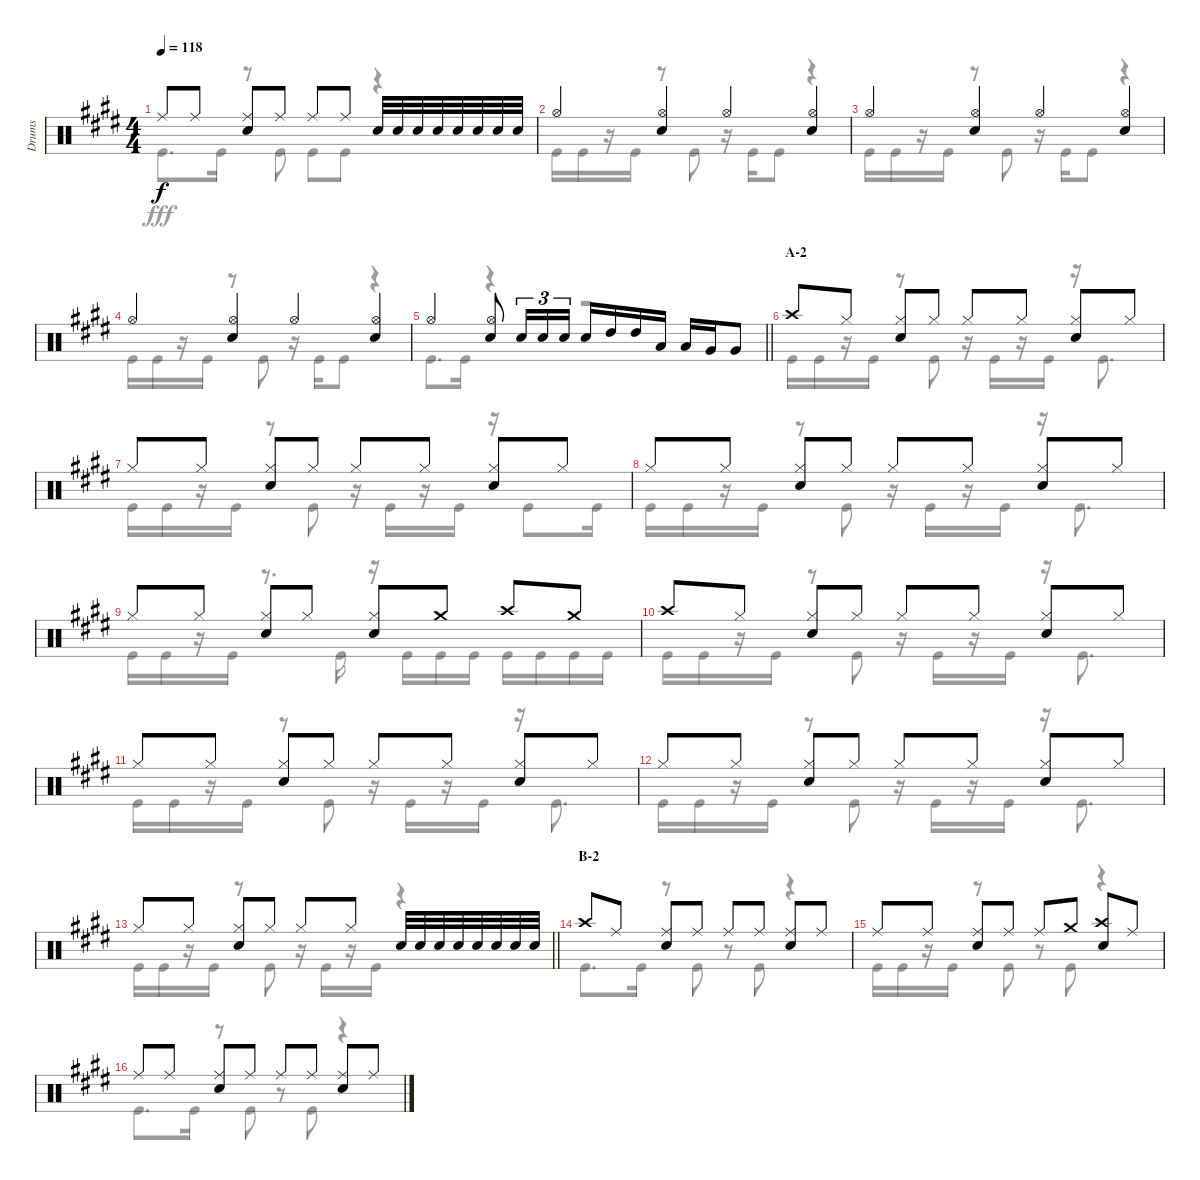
\track ("Drums" "Drums") {instrument percussion}
\staff {score}
\articulation defaults
\voice
\ts (4 4)
\tempo 118
\clef neutral
\ks e "Ride (middle)".8{dy f} "Ride (middle)".8
("Ride (middle)" "Snare (hit) 2").8 "Ride (middle)".8 "Ride (middle)".8 "Ride (middle)".8 "Snare (hit) 2".32 "Snare (hit) 2".32 "Snare (hit) 2".32 "Snare (hit) 2".32 "Snare (hit) 2".32 "Snare (hit) 2".32 "Snare (hit) 2".32 "Snare (hit) 2".32 |
"Hi-Hat (open)".4 ("Hi-Hat (open)" "Snare (hit) 2").4 "Hi-Hat (open)".4 ("Hi-Hat (open)" "Snare (hit) 2").4 |
"Hi-Hat (open)".4 ("Hi-Hat (open)" "Snare (hit) 2").4 "Hi-Hat (open)".4 ("Hi-Hat (open)" "Snare (hit) 2").4 |
"Hi-Hat (open)".4 ("Hi-Hat (open)" "Snare (hit) 2").4 "Hi-Hat (open)".4 ("Hi-Hat (open)" "Snare (hit) 2").4 |
\barLineRight lightlight "Hi-Hat (open)".4
("Hi-Hat (open)" "Snare (hit) 2").8 "Snare (hit) 2".16{tu (3 2)} "Snare (hit) 2".16{tu (3 2)} "Snare (hit) 2".16{tu (3 2)} "Snare (hit) 2".16 "High Tom (hit)".16 "High Tom (hit)".16 "Low Tom (hit)".16 "Low Tom (hit)".16 "Very Low Tom (hit)".16 "Very Low Tom (hit)".8 |
\section ("" "A-2")
"Crash high (hit)".8 "Hi-Hat (closed)".8 ("Hi-Hat (closed)" "Snare (hit) 2").8 "Hi-Hat (closed)".8 "Hi-Hat (closed)".8 "Hi-Hat (closed)".8 ("Hi-Hat (closed)" "Snare (hit) 2").8 "Hi-Hat (closed)".8 |
"Hi-Hat (closed)".8 "Hi-Hat (closed)".8 ("Hi-Hat (closed)" "Snare (hit) 2").8 "Hi-Hat (closed)".8 "Hi-Hat (closed)".8 "Hi-Hat (closed)".8 ("Hi-Hat (closed)" "Snare (hit) 2").8 "Hi-Hat (closed)".8 |
"Hi-Hat (closed)".8 "Hi-Hat (closed)".8 ("Hi-Hat (closed)" "Snare (hit) 2").8 "Hi-Hat (closed)".8 "Hi-Hat (closed)".8 "Hi-Hat (closed)".8 ("Hi-Hat (closed)" "Snare (hit) 2").8 "Hi-Hat (closed)".8 |
"Hi-Hat (closed)".8 "Hi-Hat (closed)".8 ("Hi-Hat (closed)" "Snare (hit) 2").8 "Hi-Hat (closed)".8 ("Hi-Hat (closed)" "Snare (hit) 2").8 "Crash medium (hit)".8 "Crash high (hit)".8 "Crash medium (hit)".8 |
"Crash high (hit)".8 "Hi-Hat (closed)".8 ("Hi-Hat (closed)" "Snare (hit) 2").8 "Hi-Hat (closed)".8 "Hi-Hat (closed)".8 "Hi-Hat (closed)".8 ("Hi-Hat (closed)" "Snare (hit) 2").8 "Hi-Hat (closed)".8 |
"Hi-Hat (closed)".8 "Hi-Hat (closed)".8 ("Hi-Hat (closed)" "Snare (hit) 2").8 "Hi-Hat (closed)".8 "Hi-Hat (closed)".8 "Hi-Hat (closed)".8 ("Hi-Hat (closed)" "Snare (hit) 2").8 "Hi-Hat (closed)".8 |
"Hi-Hat (closed)".8 "Hi-Hat (closed)".8 ("Hi-Hat (closed)" "Snare (hit) 2").8 "Hi-Hat (closed)".8 "Hi-Hat (closed)".8 "Hi-Hat (closed)".8 ("Hi-Hat (closed)" "Snare (hit) 2").8 "Hi-Hat (closed)".8 |
\barLineRight lightlight "Hi-Hat (closed)".8 "Hi-Hat (closed)".8
("Hi-Hat (closed)" "Snare (hit) 2").8 "Hi-Hat (closed)".8 "Hi-Hat (closed)".8 "Hi-Hat (closed)".8 "Snare (hit) 2".32 "Snare (hit) 2".32 "Snare (hit) 2".32 "Snare (hit) 2".32 "Snare (hit) 2".32 "Snare (hit) 2".32 "Snare (hit) 2".32 "Snare (hit) 2".32 |
\section ("" "B-2")
"Crash high (hit)".8 "Ride (middle)".8 ("Ride (middle)" "Snare (hit) 2").8 "Ride (middle)".8 "Ride (middle)".8 "Ride (middle)".8 ("Ride (middle)" "Snare (hit) 2").8 "Ride (middle)".8 |
"Ride (middle)".8 "Ride (middle)".8 ("Ride (middle)" "Snare (hit) 2").8 "Ride (middle)".8 "Ride (middle)".8 "Crash medium (hit)".8 ("Crash high (hit)" "Snare (hit) 2").8 "Ride (middle)".8 |
"Ride (middle)".8 "Ride (middle)".8 ("Ride (middle)" "Snare (hit) 2").8 "Ride (middle)".8 "Ride (middle)".8 "Ride (middle)".8 ("Ride (middle)" "Snare (hit) 2").8 "Ride (middle)".8
\voice
\clef neutral
\ottava regular
\simile none
\ks e "Kick (hit)".8{d dy fff} "Kick (hit)".16
r.8 "Kick (hit)".8 "Kick (hit)".8 "Kick (hit)".8 r.4 |
"Kick (hit)".16 "Kick (hit)".16 r.16 "Kick (hit)".16 r.8 "Kick (hit)".8 r.16 "Kick (hit)".16 "Kick (hit)".8 r.4 |
"Kick (hit)".16 "Kick (hit)".16 r.16 "Kick (hit)".16 r.8 "Kick (hit)".8 r.16 "Kick (hit)".16 "Kick (hit)".8 r.4 |
"Kick (hit)".16 "Kick (hit)".16 r.16 "Kick (hit)".16 r.8 "Kick (hit)".8 r.16 "Kick (hit)".16 "Kick (hit)".8 r.4 |
\barLineRight lightlight "Kick (hit)".8{d} "Kick (hit)".16
r.4 r.2 |
"Kick (hit)".16 "Kick (hit)".16 r.16 "Kick (hit)".16 r.8 "Kick (hit)".8 r.16 "Kick (hit)".16 r.16 "Kick (hit)".16 r.16 "Kick (hit)".8{d} |
"Kick (hit)".16 "Kick (hit)".16 r.16 "Kick (hit)".16 r.8 "Kick (hit)".8 r.16 "Kick (hit)".16 r.16 "Kick (hit)".16 r.16 "Kick (hit)".8 "Kick (hit)".16 |
"Kick (hit)".16 "Kick (hit)".16 r.16 "Kick (hit)".16 r.8 "Kick (hit)".8 r.16 "Kick (hit)".16 r.16 "Kick (hit)".16 r.16 "Kick (hit)".8{d} |
"Kick (hit)".16 "Kick (hit)".16 r.16 "Kick (hit)".16 r.8{d} "Kick (hit)".16 r.16 "Kick (hit)".16 "Kick (hit)".16 "Kick (hit)".16 "Kick (hit)".16 "Kick (hit)".16 "Kick (hit)".16 "Kick (hit)".16 |
"Kick (hit)".16 "Kick (hit)".16 r.16 "Kick (hit)".16 r.8 "Kick (hit)".8 r.16 "Kick (hit)".16 r.16 "Kick (hit)".16 r.16 "Kick (hit)".8{d} |
"Kick (hit)".16 "Kick (hit)".16 r.16 "Kick (hit)".16 r.8 "Kick (hit)".8 r.16 "Kick (hit)".16 r.16 "Kick (hit)".16 r.16 "Kick (hit)".8{d} |
"Kick (hit)".16 "Kick (hit)".16 r.16 "Kick (hit)".16 r.8 "Kick (hit)".8 r.16 "Kick (hit)".16 r.16 "Kick (hit)".16 r.16 "Kick (hit)".8{d} |
\barLineRight lightlight "Kick (hit)".16 "Kick (hit)".16
r.16 "Kick (hit)".16 r.8 "Kick (hit)".8 r.16 "Kick (hit)".16 r.16 "Kick (hit)".16 r.4 |
"Kick (hit)".8{d} "Kick (hit)".16 r.8 "Kick (hit)".8 r.8 "Kick (hit)".8 r.4 |
"Kick (hit)".16 "Kick (hit)".16 r.16 "Kick (hit)".16 r.8 "Kick (hit)".8 r.8 "Kick (hit)".8 r.4 |
"Kick (hit)".8{d} "Kick (hit)".16 r.8 "Kick (hit)".8 r.8 "Kick (hit)".8 r.4
